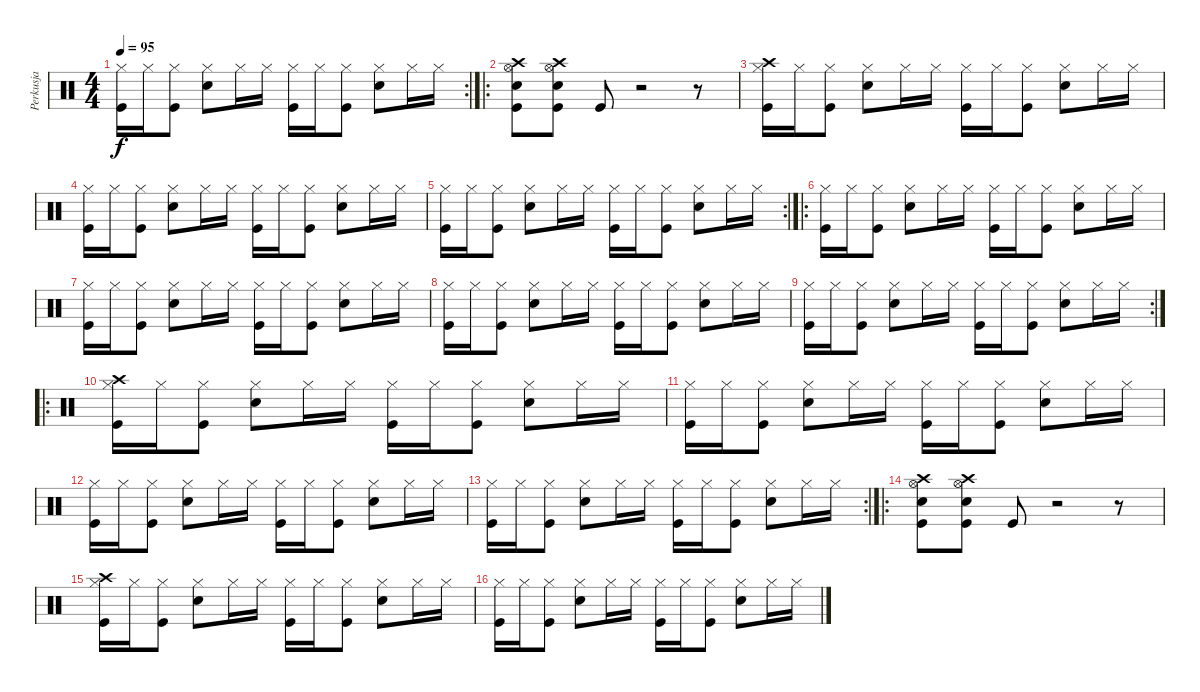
\track ("Perkusja" "Perkusja") {instrument percussion}
\staff {score}
\articulation defaults
\rc 2
\ts (4 4)
\tempo 95
\clef neutral
\ks c
("Hi-Hat (closed)" "Kick (hit)").16{dy f} "Hi-Hat (closed)".16 ("Hi-Hat (closed)" "Kick (hit)").8 ("Hi-Hat (closed)" "Electric Snare (hit)").8 "Hi-Hat (closed)".16 "Hi-Hat (closed)".16 ("Hi-Hat (closed)" "Kick (hit)").16 "Hi-Hat (closed)".16 ("Hi-Hat (closed)" "Kick (hit)").8 ("Hi-Hat (closed)" "Electric Snare (hit)").8 "Hi-Hat (closed)".16 "Hi-Hat (closed)".16 |
\ro
("Hi-Hat (open)" "Crash high (hit)" "Electric Snare (hit)" "Kick (hit)").8 ("Hi-Hat (open)" "Crash high (hit)" "Electric Snare (hit)" "Kick (hit)").8 "Kick (hit)".8 r.2 r.8 |
("Hi-Hat (closed)" "Crash high (hit)" "Kick (hit)").16 "Hi-Hat (closed)".16 ("Hi-Hat (closed)" "Kick (hit)").8 ("Hi-Hat (closed)" "Electric Snare (hit)").8 "Hi-Hat (closed)".16 "Hi-Hat (closed)".16 ("Hi-Hat (closed)" "Kick (hit)").16 "Hi-Hat (closed)".16 ("Hi-Hat (closed)" "Kick (hit)").8 ("Hi-Hat (closed)" "Electric Snare (hit)").8 "Hi-Hat (closed)".16 "Hi-Hat (closed)".16 |
("Hi-Hat (closed)" "Kick (hit)").16 "Hi-Hat (closed)".16 ("Hi-Hat (closed)" "Kick (hit)").8 ("Hi-Hat (closed)" "Electric Snare (hit)").8 "Hi-Hat (closed)".16 "Hi-Hat (closed)".16 ("Hi-Hat (closed)" "Kick (hit)").16 "Hi-Hat (closed)".16 ("Hi-Hat (closed)" "Kick (hit)").8 ("Hi-Hat (closed)" "Electric Snare (hit)").8 "Hi-Hat (closed)".16 "Hi-Hat (closed)".16 |
\rc 2
("Hi-Hat (closed)" "Kick (hit)").16 "Hi-Hat (closed)".16 ("Hi-Hat (closed)" "Kick (hit)").8 ("Hi-Hat (closed)" "Electric Snare (hit)").8 "Hi-Hat (closed)".16 "Hi-Hat (closed)".16 ("Hi-Hat (closed)" "Kick (hit)").16 "Hi-Hat (closed)".16 ("Hi-Hat (closed)" "Kick (hit)").8 ("Hi-Hat (closed)" "Electric Snare (hit)").8 "Hi-Hat (closed)".16 "Hi-Hat (closed)".16 |
\ro
("Hi-Hat (closed)" "Kick (hit)").16 "Hi-Hat (closed)".16 ("Hi-Hat (closed)" "Kick (hit)").8 ("Hi-Hat (closed)" "Electric Snare (hit)").8 "Hi-Hat (closed)".16 "Hi-Hat (closed)".16 ("Hi-Hat (closed)" "Kick (hit)").16 "Hi-Hat (closed)".16 ("Hi-Hat (closed)" "Kick (hit)").8 ("Hi-Hat (closed)" "Electric Snare (hit)").8 "Hi-Hat (closed)".16 "Hi-Hat (closed)".16 |
("Hi-Hat (closed)" "Kick (hit)").16 "Hi-Hat (closed)".16 ("Hi-Hat (closed)" "Kick (hit)").8 ("Hi-Hat (closed)" "Electric Snare (hit)").8 "Hi-Hat (closed)".16 "Hi-Hat (closed)".16 ("Hi-Hat (closed)" "Kick (hit)").16 "Hi-Hat (closed)".16 ("Hi-Hat (closed)" "Kick (hit)").8 ("Hi-Hat (closed)" "Electric Snare (hit)").8 "Hi-Hat (closed)".16 "Hi-Hat (closed)".16 |
("Hi-Hat (closed)" "Kick (hit)").16 "Hi-Hat (closed)".16 ("Hi-Hat (closed)" "Kick (hit)").8 ("Hi-Hat (closed)" "Electric Snare (hit)").8 "Hi-Hat (closed)".16 "Hi-Hat (closed)".16 ("Hi-Hat (closed)" "Kick (hit)").16 "Hi-Hat (closed)".16 ("Hi-Hat (closed)" "Kick (hit)").8 ("Hi-Hat (closed)" "Electric Snare (hit)").8 "Hi-Hat (closed)".16 "Hi-Hat (closed)".16 |
\rc 2
("Hi-Hat (closed)" "Kick (hit)").16 "Hi-Hat (closed)".16 ("Hi-Hat (closed)" "Kick (hit)").8 ("Hi-Hat (closed)" "Electric Snare (hit)").8 "Hi-Hat (closed)".16 "Hi-Hat (closed)".16 ("Hi-Hat (closed)" "Kick (hit)").16 "Hi-Hat (closed)".16 ("Hi-Hat (closed)" "Kick (hit)").8 ("Hi-Hat (closed)" "Electric Snare (hit)").8 "Hi-Hat (closed)".16 "Hi-Hat (closed)".16 |
\ro
("Hi-Hat (closed)" "Crash high (hit)" "Kick (hit)").16 "Hi-Hat (closed)".16 ("Hi-Hat (closed)" "Kick (hit)").8 ("Hi-Hat (closed)" "Electric Snare (hit)").8 "Hi-Hat (closed)".16 "Hi-Hat (closed)".16 ("Hi-Hat (closed)" "Kick (hit)").16 "Hi-Hat (closed)".16 ("Hi-Hat (closed)" "Kick (hit)").8 ("Hi-Hat (closed)" "Electric Snare (hit)").8 "Hi-Hat (closed)".16 "Hi-Hat (closed)".16 |
("Hi-Hat (closed)" "Kick (hit)").16 "Hi-Hat (closed)".16 ("Hi-Hat (closed)" "Kick (hit)").8 ("Hi-Hat (closed)" "Electric Snare (hit)").8 "Hi-Hat (closed)".16 "Hi-Hat (closed)".16 ("Hi-Hat (closed)" "Kick (hit)").16 "Hi-Hat (closed)".16 ("Hi-Hat (closed)" "Kick (hit)").8 ("Hi-Hat (closed)" "Electric Snare (hit)").8 "Hi-Hat (closed)".16 "Hi-Hat (closed)".16 |
("Hi-Hat (closed)" "Kick (hit)").16 "Hi-Hat (closed)".16 ("Hi-Hat (closed)" "Kick (hit)").8 ("Hi-Hat (closed)" "Electric Snare (hit)").8 "Hi-Hat (closed)".16 "Hi-Hat (closed)".16 ("Hi-Hat (closed)" "Kick (hit)").16 "Hi-Hat (closed)".16 ("Hi-Hat (closed)" "Kick (hit)").8 ("Hi-Hat (closed)" "Electric Snare (hit)").8 "Hi-Hat (closed)".16 "Hi-Hat (closed)".16 |
\rc 2
("Hi-Hat (closed)" "Kick (hit)").16 "Hi-Hat (closed)".16 ("Hi-Hat (closed)" "Kick (hit)").8 ("Hi-Hat (closed)" "Electric Snare (hit)").8 "Hi-Hat (closed)".16 "Hi-Hat (closed)".16 ("Hi-Hat (closed)" "Kick (hit)").16 "Hi-Hat (closed)".16 ("Hi-Hat (closed)" "Kick (hit)").8 ("Hi-Hat (closed)" "Electric Snare (hit)").8 "Hi-Hat (closed)".16 "Hi-Hat (closed)".16 |
\ro
("Hi-Hat (open)" "Crash high (hit)" "Electric Snare (hit)" "Kick (hit)").8 ("Hi-Hat (open)" "Crash high (hit)" "Electric Snare (hit)" "Kick (hit)").8 "Kick (hit)".8 r.2 r.8 |
("Hi-Hat (closed)" "Crash high (hit)" "Kick (hit)").16 "Hi-Hat (closed)".16 ("Hi-Hat (closed)" "Kick (hit)").8 ("Hi-Hat (closed)" "Electric Snare (hit)").8 "Hi-Hat (closed)".16 "Hi-Hat (closed)".16 ("Hi-Hat (closed)" "Kick (hit)").16 "Hi-Hat (closed)".16 ("Hi-Hat (closed)" "Kick (hit)").8 ("Hi-Hat (closed)" "Electric Snare (hit)").8 "Hi-Hat (closed)".16 "Hi-Hat (closed)".16 |
("Hi-Hat (closed)" "Kick (hit)").16 "Hi-Hat (closed)".16 ("Hi-Hat (closed)" "Kick (hit)").8 ("Hi-Hat (closed)" "Electric Snare (hit)").8 "Hi-Hat (closed)".16 "Hi-Hat (closed)".16 ("Hi-Hat (closed)" "Kick (hit)").16 "Hi-Hat (closed)".16 ("Hi-Hat (closed)" "Kick (hit)").8 ("Hi-Hat (closed)" "Electric Snare (hit)").8 "Hi-Hat (closed)".16 "Hi-Hat (closed)".16
